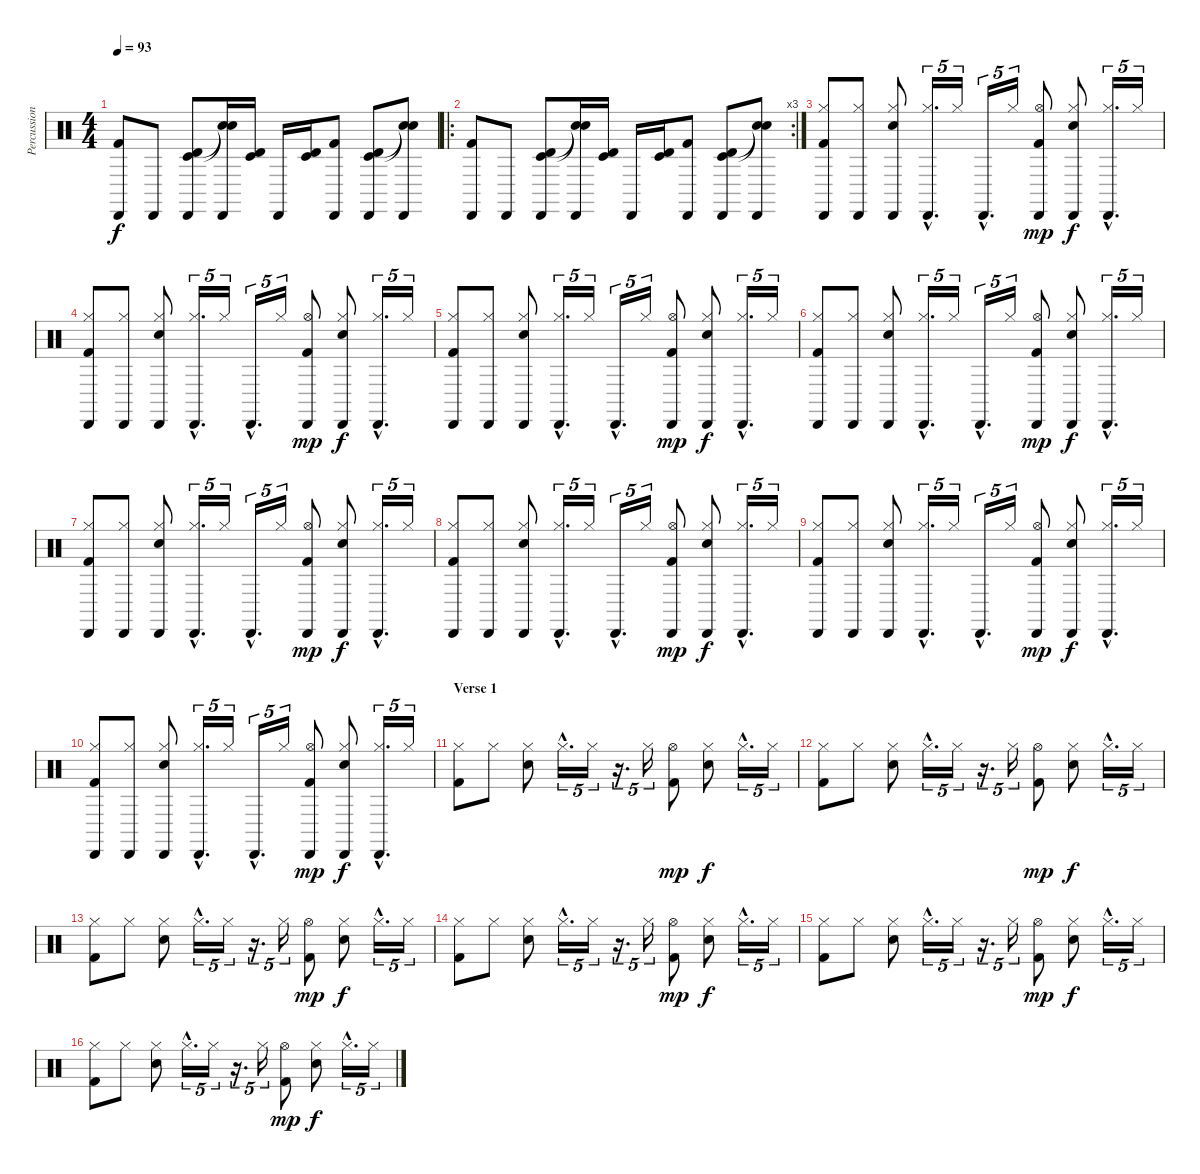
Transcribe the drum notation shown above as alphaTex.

\track ("Percussion" "Percussion") {instrument percussion}
\staff {score}
\articulation defaults
\ts (4 4)
\tempo 93
\clef neutral
\ks c
("Cabasa (hit)" "Kick (hit) 2").8{dy f} "Cabasa (hit)".8 ("Cabasa (hit)" "Timbale high (hit)" "Timbale low (hit)").8 ("Cabasa (hit)" "Snare (hit)"{t} "Snare (hit)"{t}).16 ("Timbale high (hit)" "Timbale low (hit)").16 "Cabasa (hit)".16 ("Timbale high (hit)" "Timbale low (hit)").16 ("Cabasa (hit)" "Kick (hit) 2").8 ("Cabasa (hit)" "Timbale high (hit)" "Timbale low (hit)").8 ("Cabasa (hit)" "Snare (hit)"{t} "Snare (hit)"{t}).8 |
\ro
\rc 3
("Cabasa (hit)" "Kick (hit) 2").8 "Cabasa (hit)".8 ("Cabasa (hit)" "Timbale high (hit)" "Timbale low (hit)").8 ("Cabasa (hit)" "Snare (hit)"{t} "Snare (hit)"{t}).16 ("Timbale high (hit)" "Timbale low (hit)").16 "Cabasa (hit)".16 ("Timbale high (hit)" "Timbale low (hit)").16 ("Cabasa (hit)" "Kick (hit) 2").8 ("Cabasa (hit)" "Timbale high (hit)" "Timbale low (hit)").8 ("Cabasa (hit)" "Snare (hit)"{t} "Snare (hit)"{t}).8 |
("Cabasa (hit)" "Hi-Hat (closed)" "Kick (hit) 2").8 ("Cabasa (hit)" "Hi-Hat (closed)").8 ("Cabasa (hit)" "Hi-Hat (closed)" "Snare (hit) 2").8 ("Cabasa (hit)"{hac} "Hi-Hat (closed)"{hac}).16{d tu (5 4)} "Hi-Hat (closed)".16{tu (5 4)} "Cabasa (hit)"{hac}.16{d tu (5 4)} "Hi-Hat (closed)".16{tu (5 4)} ("Cabasa (hit)" "Hi-Hat (open)" "Kick (hit) 2").8{dy mp} ("Cabasa (hit)" "Hi-Hat (closed)" "Snare (hit) 2").8{dy f} ("Cabasa (hit)"{hac} "Hi-Hat (closed)"{hac}).16{d tu (5 4)} "Hi-Hat (closed)".16{tu (5 4)} |
("Cabasa (hit)" "Hi-Hat (closed)" "Kick (hit) 2").8 ("Cabasa (hit)" "Hi-Hat (closed)").8 ("Cabasa (hit)" "Hi-Hat (closed)" "Snare (hit) 2").8 ("Cabasa (hit)"{hac} "Hi-Hat (closed)"{hac}).16{d tu (5 4)} "Hi-Hat (closed)".16{tu (5 4)} "Cabasa (hit)"{hac}.16{d tu (5 4)} "Hi-Hat (closed)".16{tu (5 4)} ("Cabasa (hit)" "Hi-Hat (open)" "Kick (hit) 2").8{dy mp} ("Cabasa (hit)" "Hi-Hat (closed)" "Snare (hit) 2").8{dy f} ("Cabasa (hit)"{hac} "Hi-Hat (closed)"{hac}).16{d tu (5 4)} "Hi-Hat (closed)".16{tu (5 4)} |
("Cabasa (hit)" "Hi-Hat (closed)" "Kick (hit) 2").8 ("Cabasa (hit)" "Hi-Hat (closed)").8 ("Cabasa (hit)" "Hi-Hat (closed)" "Snare (hit) 2").8 ("Cabasa (hit)"{hac} "Hi-Hat (closed)"{hac}).16{d tu (5 4)} "Hi-Hat (closed)".16{tu (5 4)} "Cabasa (hit)"{hac}.16{d tu (5 4)} "Hi-Hat (closed)".16{tu (5 4)} ("Cabasa (hit)" "Hi-Hat (open)" "Kick (hit) 2").8{dy mp} ("Cabasa (hit)" "Hi-Hat (closed)" "Snare (hit) 2").8{dy f} ("Cabasa (hit)"{hac} "Hi-Hat (closed)"{hac}).16{d tu (5 4)} "Hi-Hat (closed)".16{tu (5 4)} |
("Cabasa (hit)" "Hi-Hat (closed)" "Kick (hit) 2").8 ("Cabasa (hit)" "Hi-Hat (closed)").8 ("Cabasa (hit)" "Hi-Hat (closed)" "Snare (hit) 2").8 ("Cabasa (hit)"{hac} "Hi-Hat (closed)"{hac}).16{d tu (5 4)} "Hi-Hat (closed)".16{tu (5 4)} "Cabasa (hit)"{hac}.16{d tu (5 4)} "Hi-Hat (closed)".16{tu (5 4)} ("Cabasa (hit)" "Hi-Hat (open)" "Kick (hit) 2").8{dy mp} ("Cabasa (hit)" "Hi-Hat (closed)" "Snare (hit) 2").8{dy f} ("Cabasa (hit)"{hac} "Hi-Hat (closed)"{hac}).16{d tu (5 4)} "Hi-Hat (closed)".16{tu (5 4)} |
("Cabasa (hit)" "Hi-Hat (closed)" "Kick (hit) 2").8 ("Cabasa (hit)" "Hi-Hat (closed)").8 ("Cabasa (hit)" "Hi-Hat (closed)" "Snare (hit) 2").8 ("Cabasa (hit)"{hac} "Hi-Hat (closed)"{hac}).16{d tu (5 4)} "Hi-Hat (closed)".16{tu (5 4)} "Cabasa (hit)"{hac}.16{d tu (5 4)} "Hi-Hat (closed)".16{tu (5 4)} ("Cabasa (hit)" "Hi-Hat (open)" "Kick (hit) 2").8{dy mp} ("Cabasa (hit)" "Hi-Hat (closed)" "Snare (hit) 2").8{dy f} ("Cabasa (hit)"{hac} "Hi-Hat (closed)"{hac}).16{d tu (5 4)} "Hi-Hat (closed)".16{tu (5 4)} |
("Cabasa (hit)" "Hi-Hat (closed)" "Kick (hit) 2").8 ("Cabasa (hit)" "Hi-Hat (closed)").8 ("Cabasa (hit)" "Hi-Hat (closed)" "Snare (hit) 2").8 ("Cabasa (hit)"{hac} "Hi-Hat (closed)"{hac}).16{d tu (5 4)} "Hi-Hat (closed)".16{tu (5 4)} "Cabasa (hit)"{hac}.16{d tu (5 4)} "Hi-Hat (closed)".16{tu (5 4)} ("Cabasa (hit)" "Hi-Hat (open)" "Kick (hit) 2").8{dy mp} ("Cabasa (hit)" "Hi-Hat (closed)" "Snare (hit) 2").8{dy f} ("Cabasa (hit)"{hac} "Hi-Hat (closed)"{hac}).16{d tu (5 4)} "Hi-Hat (closed)".16{tu (5 4)} |
("Cabasa (hit)" "Hi-Hat (closed)" "Kick (hit) 2").8 ("Cabasa (hit)" "Hi-Hat (closed)").8 ("Cabasa (hit)" "Hi-Hat (closed)" "Snare (hit) 2").8 ("Cabasa (hit)"{hac} "Hi-Hat (closed)"{hac}).16{d tu (5 4)} "Hi-Hat (closed)".16{tu (5 4)} "Cabasa (hit)"{hac}.16{d tu (5 4)} "Hi-Hat (closed)".16{tu (5 4)} ("Cabasa (hit)" "Hi-Hat (open)" "Kick (hit) 2").8{dy mp} ("Cabasa (hit)" "Hi-Hat (closed)" "Snare (hit) 2").8{dy f} ("Cabasa (hit)"{hac} "Hi-Hat (closed)"{hac}).16{d tu (5 4)} "Hi-Hat (closed)".16{tu (5 4)} |
("Cabasa (hit)" "Hi-Hat (closed)" "Kick (hit) 2").8 ("Cabasa (hit)" "Hi-Hat (closed)").8 ("Cabasa (hit)" "Hi-Hat (closed)" "Snare (hit) 2").8 ("Cabasa (hit)"{hac} "Hi-Hat (closed)"{hac}).16{d tu (5 4)} "Hi-Hat (closed)".16{tu (5 4)} "Cabasa (hit)"{hac}.16{d tu (5 4)} "Hi-Hat (closed)".16{tu (5 4)} ("Cabasa (hit)" "Hi-Hat (open)" "Kick (hit) 2").8{dy mp} ("Cabasa (hit)" "Hi-Hat (closed)" "Snare (hit) 2").8{dy f} ("Cabasa (hit)"{hac} "Hi-Hat (closed)"{hac}).16{d tu (5 4)} "Hi-Hat (closed)".16{tu (5 4)} |
\section ("" "Verse 1")
("Hi-Hat (closed)" "Kick (hit) 2").8 "Hi-Hat (closed)".8 ("Hi-Hat (closed)" "Snare (hit) 2").8 "Hi-Hat (closed)"{hac}.16{d tu (5 4)} "Hi-Hat (closed)".16{tu (5 4)} r.16{d tu (5 4)} "Hi-Hat (closed)".16{tu (5 4)} ("Hi-Hat (open)" "Kick (hit) 2").8{dy mp} ("Hi-Hat (closed)" "Snare (hit) 2").8{dy f} "Hi-Hat (closed)"{hac}.16{d tu (5 4)} "Hi-Hat (closed)".16{tu (5 4)} |
("Hi-Hat (closed)" "Kick (hit) 2").8 "Hi-Hat (closed)".8 ("Hi-Hat (closed)" "Snare (hit) 2").8 "Hi-Hat (closed)"{hac}.16{d tu (5 4)} "Hi-Hat (closed)".16{tu (5 4)} r.16{d tu (5 4)} "Hi-Hat (closed)".16{tu (5 4)} ("Hi-Hat (open)" "Kick (hit) 2").8{dy mp} ("Hi-Hat (closed)" "Snare (hit) 2").8{dy f} "Hi-Hat (closed)"{hac}.16{d tu (5 4)} "Hi-Hat (closed)".16{tu (5 4)} |
("Hi-Hat (closed)" "Kick (hit) 2").8 "Hi-Hat (closed)".8 ("Hi-Hat (closed)" "Snare (hit) 2").8 "Hi-Hat (closed)"{hac}.16{d tu (5 4)} "Hi-Hat (closed)".16{tu (5 4)} r.16{d tu (5 4)} "Hi-Hat (closed)".16{tu (5 4)} ("Hi-Hat (open)" "Kick (hit) 2").8{dy mp} ("Hi-Hat (closed)" "Snare (hit) 2").8{dy f} "Hi-Hat (closed)"{hac}.16{d tu (5 4)} "Hi-Hat (closed)".16{tu (5 4)} |
("Hi-Hat (closed)" "Kick (hit) 2").8 "Hi-Hat (closed)".8 ("Hi-Hat (closed)" "Snare (hit) 2").8 "Hi-Hat (closed)"{hac}.16{d tu (5 4)} "Hi-Hat (closed)".16{tu (5 4)} r.16{d tu (5 4)} "Hi-Hat (closed)".16{tu (5 4)} ("Hi-Hat (open)" "Kick (hit) 2").8{dy mp} ("Hi-Hat (closed)" "Snare (hit) 2").8{dy f} "Hi-Hat (closed)"{hac}.16{d tu (5 4)} "Hi-Hat (closed)".16{tu (5 4)} |
("Hi-Hat (closed)" "Kick (hit) 2").8 "Hi-Hat (closed)".8 ("Hi-Hat (closed)" "Snare (hit) 2").8 "Hi-Hat (closed)"{hac}.16{d tu (5 4)} "Hi-Hat (closed)".16{tu (5 4)} r.16{d tu (5 4)} "Hi-Hat (closed)".16{tu (5 4)} ("Hi-Hat (open)" "Kick (hit) 2").8{dy mp} ("Hi-Hat (closed)" "Snare (hit) 2").8{dy f} "Hi-Hat (closed)"{hac}.16{d tu (5 4)} "Hi-Hat (closed)".16{tu (5 4)} |
("Hi-Hat (closed)" "Kick (hit) 2").8 "Hi-Hat (closed)".8 ("Hi-Hat (closed)" "Snare (hit) 2").8 "Hi-Hat (closed)"{hac}.16{d tu (5 4)} "Hi-Hat (closed)".16{tu (5 4)} r.16{d tu (5 4)} "Hi-Hat (closed)".16{tu (5 4)} ("Hi-Hat (open)" "Kick (hit) 2").8{dy mp} ("Hi-Hat (closed)" "Snare (hit) 2").8{dy f} "Hi-Hat (closed)"{hac}.16{d tu (5 4)} "Hi-Hat (closed)".16{tu (5 4)}
